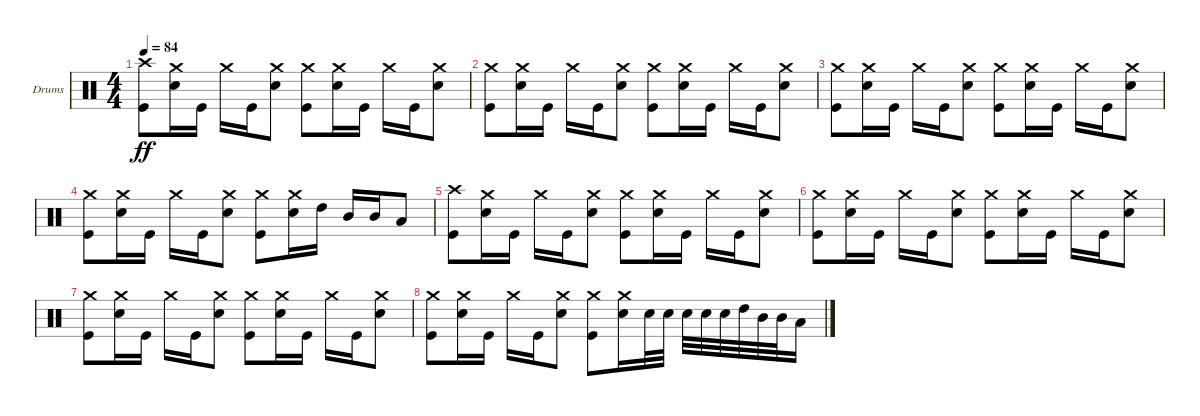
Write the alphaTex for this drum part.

\defaultSystemsLayout 4
\bracketExtendMode groupsimilarinstruments
\firstSystemTrackNameOrientation horizontal
\otherSystemsTrackNameOrientation horizontal
\track ("Drumkit" "Drums") {instrument percussion}
\staff {score}
\articulation defaults
\ts (4 4)
\tempo 84
\clef neutral
\ks c
("Kick (hit)" "Crash high (hit)").8{dy ff} ("Snare (hit) 2" "Crash medium (hit)").16 "Kick (hit)".16 "Crash medium (hit)".16 "Kick (hit)".16 ("Snare (hit) 2" "Crash medium (hit)").8 ("Kick (hit)" "Crash medium (hit)").8 ("Snare (hit) 2" "Crash medium (hit)").16 "Kick (hit)".16 "Crash medium (hit)".16 "Kick (hit)".16 ("Snare (hit) 2" "Crash medium (hit)").8 |
("Kick (hit)" "Crash medium (hit)").8 ("Snare (hit) 2" "Crash medium (hit)").16 "Kick (hit)".16 "Crash medium (hit)".16 "Kick (hit)".16 ("Snare (hit) 2" "Crash medium (hit)").8 ("Kick (hit)" "Crash medium (hit)").8 ("Snare (hit) 2" "Crash medium (hit)").16 "Kick (hit)".16 "Crash medium (hit)".16 "Kick (hit)".16 ("Snare (hit) 2" "Crash medium (hit)").8 |
("Kick (hit)" "Crash medium (hit)").8 ("Snare (hit) 2" "Crash medium (hit)").16 "Kick (hit)".16 "Crash medium (hit)".16 "Kick (hit)".16 ("Snare (hit) 2" "Crash medium (hit)").8 ("Kick (hit)" "Crash medium (hit)").8 ("Snare (hit) 2" "Crash medium (hit)").16 "Kick (hit)".16 "Crash medium (hit)".16 "Kick (hit)".16 ("Snare (hit) 2" "Crash medium (hit)").8 |
("Kick (hit)" "Crash medium (hit)").8 ("Snare (hit) 2" "Crash medium (hit)").16 "Kick (hit)".16 "Crash medium (hit)".16 "Kick (hit)".16 ("Snare (hit) 2" "Crash medium (hit)").8 ("Kick (hit)" "Crash medium (hit)").8 ("Snare (hit) 2" "Crash medium (hit)").16 "High Tom (hit)".16 "Mid Tom (hit)".16 "Mid Tom (hit)".16 "Low Tom (hit)".8 |
("Kick (hit)" "Crash high (hit)").8 ("Snare (hit) 2" "Crash medium (hit)").16 "Kick (hit)".16 "Crash medium (hit)".16 "Kick (hit)".16 ("Snare (hit) 2" "Crash medium (hit)").8 ("Kick (hit)" "Crash medium (hit)").8 ("Snare (hit) 2" "Crash medium (hit)").16 "Kick (hit)".16 "Crash medium (hit)".16 "Kick (hit)".16 ("Snare (hit) 2" "Crash medium (hit)").8 |
("Kick (hit)" "Crash medium (hit)").8 ("Snare (hit) 2" "Crash medium (hit)").16 "Kick (hit)".16 "Crash medium (hit)".16 "Kick (hit)".16 ("Snare (hit) 2" "Crash medium (hit)").8 ("Kick (hit)" "Crash medium (hit)").8 ("Snare (hit) 2" "Crash medium (hit)").16 "Kick (hit)".16 "Crash medium (hit)".16 "Kick (hit)".16 ("Snare (hit) 2" "Crash medium (hit)").8 |
("Kick (hit)" "Crash medium (hit)").8 ("Snare (hit) 2" "Crash medium (hit)").16 "Kick (hit)".16 "Crash medium (hit)".16 "Kick (hit)".16 ("Snare (hit) 2" "Crash medium (hit)").8 ("Kick (hit)" "Crash medium (hit)").8 ("Snare (hit) 2" "Crash medium (hit)").16 "Kick (hit)".16 "Crash medium (hit)".16 "Kick (hit)".16 ("Snare (hit) 2" "Crash medium (hit)").8 |
("Kick (hit)" "Crash medium (hit)").8 ("Snare (hit) 2" "Crash medium (hit)").16 "Kick (hit)".16 "Crash medium (hit)".16 "Kick (hit)".16 ("Snare (hit) 2" "Crash medium (hit)").8 ("Kick (hit)" "Crash medium (hit)").8 ("Crash medium (hit)" "Snare (hit) 2").16 "Snare (hit) 2".32 "Snare (hit) 2".32 "Snare (hit) 2".32 "Snare (hit) 2".32 "Snare (hit) 2".32 "High Tom (hit)".32 "Mid Tom (hit)".32 "Mid Tom (hit)".32 "Low Tom (hit)".16
